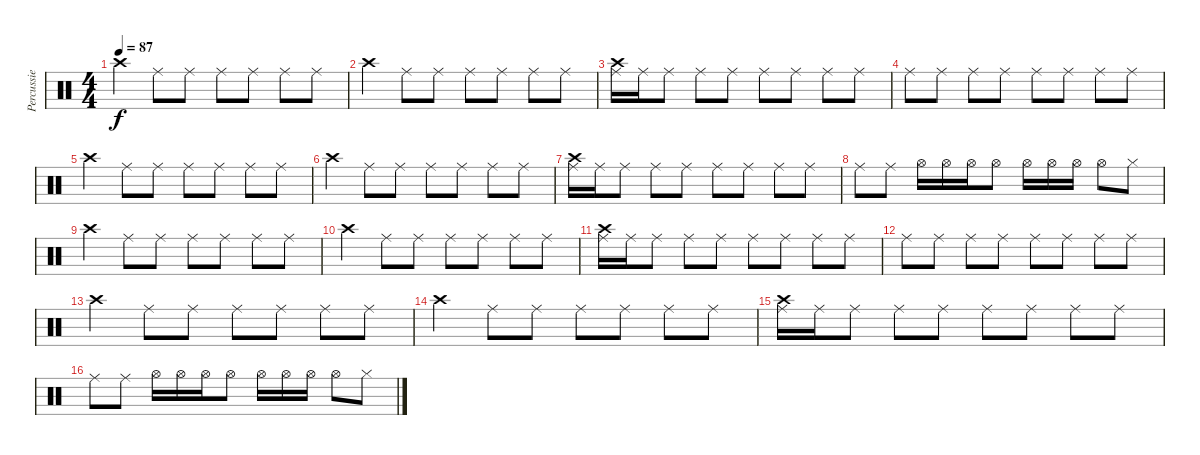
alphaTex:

\track ("Percussie" "Percussie") {instrument percussion}
\staff {score}
\articulation defaults
\ts (4 4)
\tempo 87
\clef neutral
\ks c "Crash high (hit)".4{dy f} "Ride (middle)".8 "Ride (middle)".8 "Ride (middle)".8 "Ride (middle)".8 "Ride (middle)".8 "Ride (middle)".8
|
"Crash high (hit)".4 "Ride (middle)".8 "Ride (middle)".8 "Ride (middle)".8 "Ride (middle)".8 "Ride (middle)".8 "Ride (middle)".8 |
("Ride (middle)" "Crash high (hit)").16 "Ride (middle)".16 "Ride (middle)".8 "Ride (middle)".8 "Ride (middle)".8 "Ride (middle)".8 "Ride (middle)".8 "Ride (middle)".8 "Ride (middle)".8 |
"Ride (middle)".8 "Ride (middle)".8 "Ride (middle)".8 "Ride (middle)".8 "Ride (middle)".8 "Ride (middle)".8 "Ride (middle)".8 "Ride (middle)".8 |
"Crash high (hit)".4 "Ride (middle)".8 "Ride (middle)".8 "Ride (middle)".8 "Ride (middle)".8 "Ride (middle)".8 "Ride (middle)".8 |
"Crash high (hit)".4 "Ride (middle)".8 "Ride (middle)".8 "Ride (middle)".8 "Ride (middle)".8 "Ride (middle)".8 "Ride (middle)".8 |
("Ride (middle)" "Crash high (hit)").16 "Ride (middle)".16 "Ride (middle)".8 "Ride (middle)".8 "Ride (middle)".8 "Ride (middle)".8 "Ride (middle)".8 "Ride (middle)".8 "Ride (middle)".8 |
"Ride (middle)".8 "Ride (middle)".8 "Hi-Hat (open)".16 "Hi-Hat (open)".16 "Hi-Hat (open)".16 "Hi-Hat (open)".8 "Hi-Hat (open)".16 "Hi-Hat (open)".16 "Hi-Hat (open)".16 "Hi-Hat (open)".8 "Hi-Hat (closed)".8 |
"Crash high (hit)".4 "Ride (middle)".8 "Ride (middle)".8 "Ride (middle)".8 "Ride (middle)".8 "Ride (middle)".8 "Ride (middle)".8 |
"Crash high (hit)".4 "Ride (middle)".8 "Ride (middle)".8 "Ride (middle)".8 "Ride (middle)".8 "Ride (middle)".8 "Ride (middle)".8 |
("Ride (middle)" "Crash high (hit)").16 "Ride (middle)".16 "Ride (middle)".8 "Ride (middle)".8 "Ride (middle)".8 "Ride (middle)".8 "Ride (middle)".8 "Ride (middle)".8 "Ride (middle)".8 |
"Ride (middle)".8 "Ride (middle)".8 "Ride (middle)".8 "Ride (middle)".8 "Ride (middle)".8 "Ride (middle)".8 "Ride (middle)".8 "Ride (middle)".8 |
"Crash high (hit)".4 "Ride (middle)".8 "Ride (middle)".8 "Ride (middle)".8 "Ride (middle)".8 "Ride (middle)".8 "Ride (middle)".8 |
"Crash high (hit)".4 "Ride (middle)".8 "Ride (middle)".8 "Ride (middle)".8 "Ride (middle)".8 "Ride (middle)".8 "Ride (middle)".8 |
("Ride (middle)" "Crash high (hit)").16 "Ride (middle)".16 "Ride (middle)".8 "Ride (middle)".8 "Ride (middle)".8 "Ride (middle)".8 "Ride (middle)".8 "Ride (middle)".8 "Ride (middle)".8 |
"Ride (middle)".8 "Ride (middle)".8 "Hi-Hat (open)".16 "Hi-Hat (open)".16 "Hi-Hat (open)".16 "Hi-Hat (open)".8 "Hi-Hat (open)".16 "Hi-Hat (open)".16 "Hi-Hat (open)".16 "Hi-Hat (open)".8 "Hi-Hat (closed)".8
